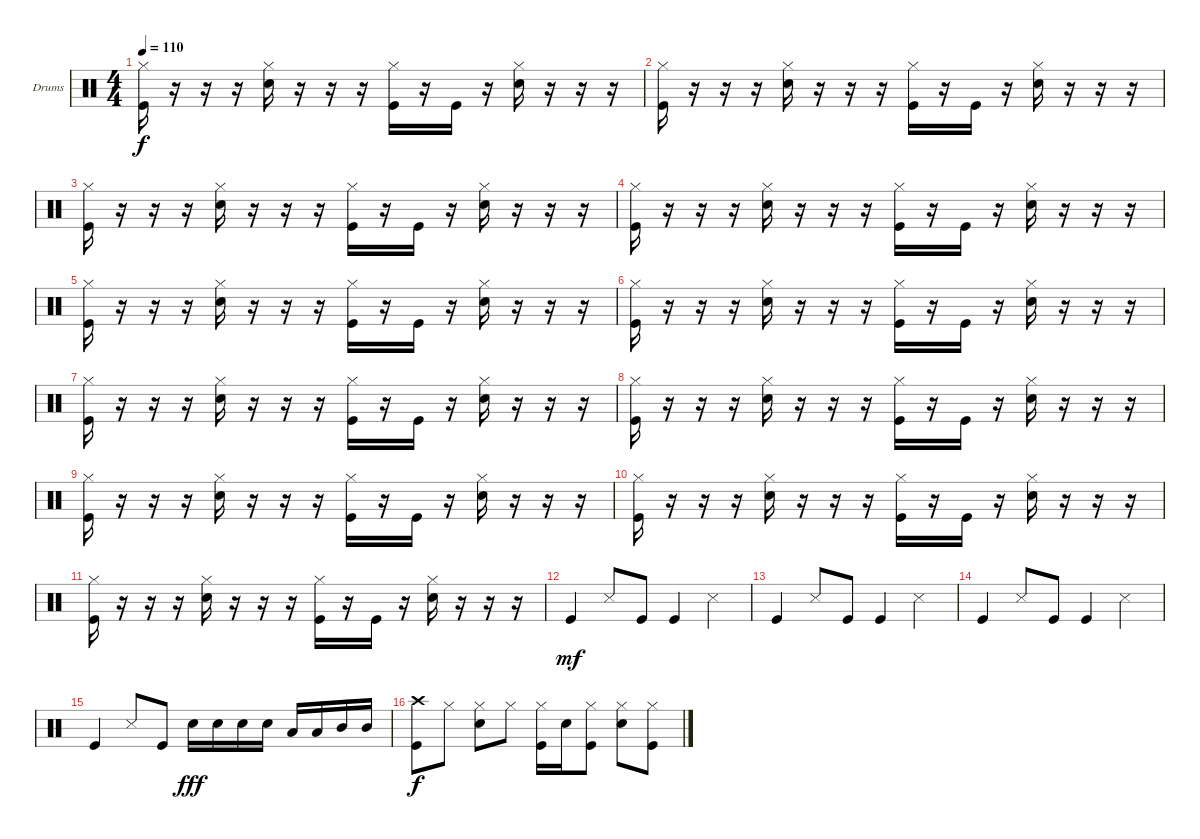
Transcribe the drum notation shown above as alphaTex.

\defaultSystemsLayout 4
\bracketExtendMode groupsimilarinstruments
\firstSystemTrackNameOrientation horizontal
\otherSystemsTrackNameOrientation horizontal
\track ("Drumkit" "Drums") {instrument percussion}
\staff {score}
\articulation defaults
\ts (4 4)
\tempo 110
\clef neutral
\ks c
("Kick (hit)" "Hi-Hat (closed)").16{dy f} r.16 r.16 r.16 ("Hi-Hat (closed)" "Snare (hit) 2").16 r.16 r.16 r.16 ("Hi-Hat (closed)" "Kick (hit)").16 r.16 "Kick (hit)".16 r.16 ("Hi-Hat (closed)" "Snare (hit) 2").16 r.16 r.16 r.16 |
("Kick (hit)" "Hi-Hat (closed)").16 r.16 r.16 r.16 ("Hi-Hat (closed)" "Snare (hit) 2").16 r.16 r.16 r.16 ("Hi-Hat (closed)" "Kick (hit)").16 r.16 "Kick (hit)".16 r.16 ("Hi-Hat (closed)" "Snare (hit) 2").16 r.16 r.16 r.16 |
("Kick (hit)" "Hi-Hat (closed)").16 r.16 r.16 r.16 ("Hi-Hat (closed)" "Snare (hit) 2").16 r.16 r.16 r.16 ("Hi-Hat (closed)" "Kick (hit)").16 r.16 "Kick (hit)".16 r.16 ("Hi-Hat (closed)" "Snare (hit) 2").16 r.16 r.16 r.16 |
("Kick (hit)" "Hi-Hat (closed)").16 r.16 r.16 r.16 ("Hi-Hat (closed)" "Snare (hit) 2").16 r.16 r.16 r.16 ("Hi-Hat (closed)" "Kick (hit)").16 r.16 "Kick (hit)".16 r.16 ("Hi-Hat (closed)" "Snare (hit) 2").16 r.16 r.16 r.16 |
("Kick (hit)" "Hi-Hat (closed)").16 r.16 r.16 r.16 ("Hi-Hat (closed)" "Snare (hit) 2").16 r.16 r.16 r.16 ("Hi-Hat (closed)" "Kick (hit)").16 r.16 "Kick (hit)".16 r.16 ("Hi-Hat (closed)" "Snare (hit) 2").16 r.16 r.16 r.16 |
("Kick (hit)" "Hi-Hat (closed)").16 r.16 r.16 r.16 ("Hi-Hat (closed)" "Snare (hit) 2").16 r.16 r.16 r.16 ("Hi-Hat (closed)" "Kick (hit)").16 r.16 "Kick (hit)".16 r.16 ("Hi-Hat (closed)" "Snare (hit) 2").16 r.16 r.16 r.16 |
("Kick (hit)" "Hi-Hat (closed)").16 r.16 r.16 r.16 ("Hi-Hat (closed)" "Snare (hit) 2").16 r.16 r.16 r.16 ("Hi-Hat (closed)" "Kick (hit)").16 r.16 "Kick (hit)".16 r.16 ("Hi-Hat (closed)" "Snare (hit) 2").16 r.16 r.16 r.16 |
("Kick (hit)" "Hi-Hat (closed)").16 r.16 r.16 r.16 ("Hi-Hat (closed)" "Snare (hit) 2").16 r.16 r.16 r.16 ("Hi-Hat (closed)" "Kick (hit)").16 r.16 "Kick (hit)".16 r.16 ("Hi-Hat (closed)" "Snare (hit) 2").16 r.16 r.16 r.16 |
("Kick (hit)" "Hi-Hat (closed)").16 r.16 r.16 r.16 ("Hi-Hat (closed)" "Snare (hit) 2").16 r.16 r.16 r.16 ("Hi-Hat (closed)" "Kick (hit)").16 r.16 "Kick (hit)".16 r.16 ("Hi-Hat (closed)" "Snare (hit) 2").16 r.16 r.16 r.16 |
("Kick (hit)" "Hi-Hat (closed)").16 r.16 r.16 r.16 ("Hi-Hat (closed)" "Snare (hit) 2").16 r.16 r.16 r.16 ("Hi-Hat (closed)" "Kick (hit)").16 r.16 "Kick (hit)".16 r.16 ("Hi-Hat (closed)" "Snare (hit) 2").16 r.16 r.16 r.16 |
("Kick (hit)" "Hi-Hat (closed)").16 r.16 r.16 r.16 ("Hi-Hat (closed)" "Snare (hit) 2").16 r.16 r.16 r.16 ("Hi-Hat (closed)" "Kick (hit)").16 r.16 "Kick (hit)".16 r.16 ("Hi-Hat (closed)" "Snare (hit) 2").16 r.16 r.16 r.16 |
"Kick (hit)".4{dy mf} "Snare (side stick) 3".8 "Kick (hit)".8 "Kick (hit)".4 "Snare (side stick) 3".4 |
"Kick (hit)".4 "Snare (side stick) 3".8 "Kick (hit)".8 "Kick (hit)".4 "Snare (side stick) 3".4 |
"Kick (hit)".4 "Snare (side stick) 3".8 "Kick (hit)".8 "Kick (hit)".4 "Snare (side stick) 3".4 |
"Kick (hit)".4 "Snare (side stick) 3".8 "Kick (hit)".8 "Snare (hit) 2".16{dy fff} "Snare (hit) 2".16 "Snare (hit) 2".16 "Snare (hit) 2".16 "Low Tom (hit)".16 "Low Tom (hit)".16 "Mid Tom (hit)".16 "Mid Tom (hit)".16 |
("Kick (hit)" "Crash high (hit)").8{dy f} "Hi-Hat (closed)".8 ("Hi-Hat (closed)" "Snare (hit) 2").8 "Hi-Hat (closed)".8 ("Hi-Hat (closed)" "Kick (hit)").16 "Snare (hit) 2".16 ("Hi-Hat (closed)" "Kick (hit)").8 ("Hi-Hat (closed)" "Snare (hit) 2").8 ("Hi-Hat (closed)" "Kick (hit)").8
